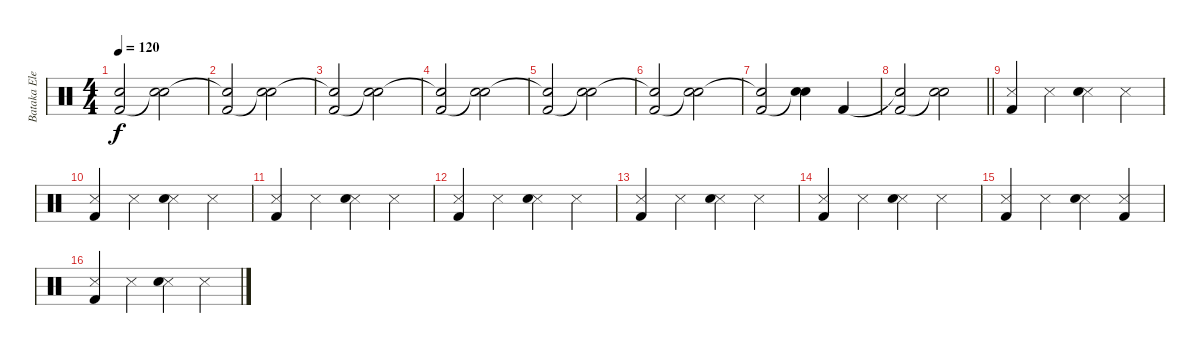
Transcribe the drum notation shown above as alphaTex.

\track ("Bataka Electrica" "Bataka Ele") {instrument percussion}
\staff {score}
\articulation defaults
\ts (4 4)
\tempo 120
\clef neutral
\ks c
("Snare (hit)"{t} "Kick (hit) 2").2{dy f} ("Snare (hit) 2" "Snare (hit)"{t}).2 |
("Snare (hit)"{t} "Kick (hit) 2").2 ("Snare (hit) 2" "Snare (hit)"{t}).2 |
("Snare (hit)"{t} "Kick (hit) 2").2 ("Snare (hit) 2" "Snare (hit)"{t}).2 |
("Snare (hit)"{t} "Kick (hit) 2").2 ("Snare (hit) 2" "Snare (hit)"{t}).2 |
("Snare (hit)"{t} "Kick (hit) 2").2 ("Snare (hit) 2" "Snare (hit)"{t}).2 |
("Snare (hit)"{t} "Kick (hit) 2").2 ("Snare (hit) 2" "Snare (hit)"{t}).2 |
("Snare (hit)"{t} "Kick (hit) 2").2 ("Snare (hit) 2" "Snare (hit)"{t}).4 "Kick (hit) 2".4 |
\barLineRight lightlight
("Snare (hit)"{t} "Kick (hit) 2").2 ("Snare (hit) 2" "Snare (hit)"{t}).2 |
\section ("" "")
("Metronome (hit)" "Kick (hit) 2").4 "Metronome (hit)".4 ("Metronome (hit)" "Snare (hit) 2").4 "Metronome (hit)".4 |
("Metronome (hit)" "Kick (hit) 2").4 "Metronome (hit)".4 ("Metronome (hit)" "Snare (hit) 2").4 "Metronome (hit)".4 |
("Metronome (hit)" "Kick (hit) 2").4 "Metronome (hit)".4 ("Metronome (hit)" "Snare (hit) 2").4 "Metronome (hit)".4 |
("Metronome (hit)" "Kick (hit) 2").4 "Metronome (hit)".4 ("Metronome (hit)" "Snare (hit) 2").4 "Metronome (hit)".4 |
("Metronome (hit)" "Kick (hit) 2").4 "Metronome (hit)".4 ("Metronome (hit)" "Snare (hit) 2").4 "Metronome (hit)".4 |
("Metronome (hit)" "Kick (hit) 2").4 "Metronome (hit)".4 ("Metronome (hit)" "Snare (hit) 2").4 "Metronome (hit)".4 |
("Metronome (hit)" "Kick (hit) 2").4 "Metronome (hit)".4 ("Metronome (hit)" "Snare (hit) 2").4 ("Metronome (hit)" "Kick (hit) 2").4 |
("Metronome (hit)" "Kick (hit) 2").4 "Metronome (hit)".4 ("Metronome (hit)" "Snare (hit) 2").4 "Metronome (hit)".4
